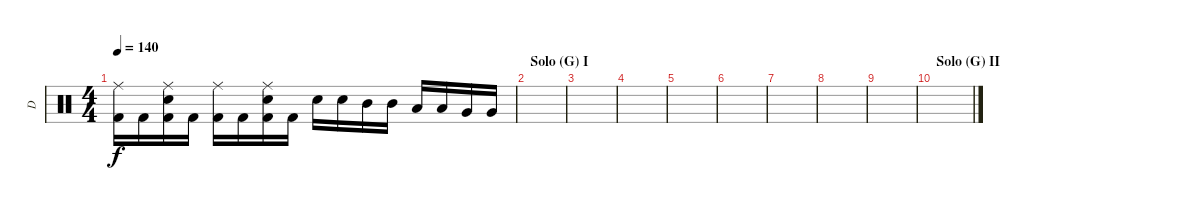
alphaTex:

\track ("D" "D") {instrument percussion}
\staff {score}
\articulation defaults
\ts (4 4)
\tempo 140
\clef neutral
\ks c
("Ride (middle)" "Kick (hit) 2").16{dy f} "Kick (hit) 2".16 ("Ride (middle)" "Electric Snare (hit)" "Kick (hit) 2").16 "Kick (hit) 2".16 ("Ride (middle)" "Kick (hit) 2").16 "Kick (hit) 2".16 ("Ride (middle)" "Electric Snare (hit)" "Kick (hit) 2").16 "Kick (hit) 2".16 "Electric Snare (hit)".16 "Electric Snare (hit)".16 "Mid Tom (hit)".16 "Mid Tom (hit)".16 "Low Tom (hit)".16 "Low Tom (hit)".16 "Very Low Tom (hit)".16 "Very Low Tom (hit)".16 |
\section ("" "Solo (G) I")
|
|
|
|
|
|
|
|
\section ("" "Solo (G) II")
